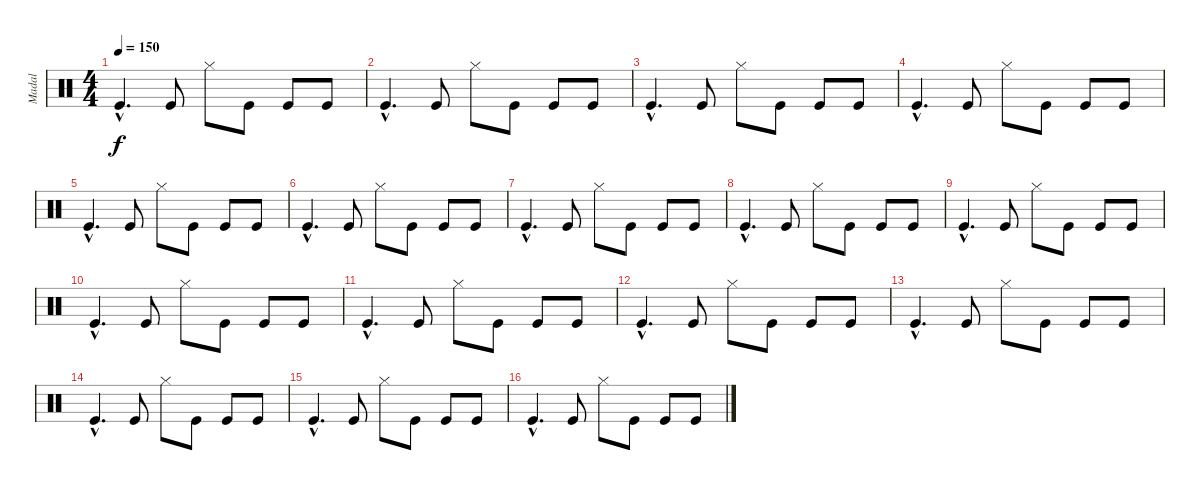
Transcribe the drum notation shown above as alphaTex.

\track ("Madal" "Madal") {instrument percussion}
\staff {score}
\articulation defaults
\ts (4 4)
\tempo 150
\clef neutral
\ks c "Kick (hit)"{hac}.4{d dy f} "Kick (hit)".8 "Hi-Hat (closed)".8 "Kick (hit)".8 "Kick (hit)".8 "Kick (hit)".8
|
"Kick (hit)"{hac}.4{d} "Kick (hit)".8 "Hi-Hat (closed)".8 "Kick (hit)".8 "Kick (hit)".8 "Kick (hit)".8 |
"Kick (hit)"{hac}.4{d} "Kick (hit)".8 "Hi-Hat (closed)".8 "Kick (hit)".8 "Kick (hit)".8 "Kick (hit)".8 |
"Kick (hit)"{hac}.4{d} "Kick (hit)".8 "Hi-Hat (closed)".8 "Kick (hit)".8 "Kick (hit)".8 "Kick (hit)".8 |
"Kick (hit)"{hac}.4{d} "Kick (hit)".8 "Hi-Hat (closed)".8 "Kick (hit)".8 "Kick (hit)".8 "Kick (hit)".8 |
"Kick (hit)"{hac}.4{d} "Kick (hit)".8 "Hi-Hat (closed)".8 "Kick (hit)".8 "Kick (hit)".8 "Kick (hit)".8 |
"Kick (hit)"{hac}.4{d} "Kick (hit)".8 "Hi-Hat (closed)".8 "Kick (hit)".8 "Kick (hit)".8 "Kick (hit)".8 |
"Kick (hit)"{hac}.4{d} "Kick (hit)".8 "Hi-Hat (closed)".8 "Kick (hit)".8 "Kick (hit)".8 "Kick (hit)".8 |
"Kick (hit)"{hac}.4{d} "Kick (hit)".8 "Hi-Hat (closed)".8 "Kick (hit)".8 "Kick (hit)".8 "Kick (hit)".8 |
"Kick (hit)"{hac}.4{d} "Kick (hit)".8 "Hi-Hat (closed)".8 "Kick (hit)".8 "Kick (hit)".8 "Kick (hit)".8 |
"Kick (hit)"{hac}.4{d} "Kick (hit)".8 "Hi-Hat (closed)".8 "Kick (hit)".8 "Kick (hit)".8 "Kick (hit)".8 |
"Kick (hit)"{hac}.4{d} "Kick (hit)".8 "Hi-Hat (closed)".8 "Kick (hit)".8 "Kick (hit)".8 "Kick (hit)".8 |
"Kick (hit)"{hac}.4{d} "Kick (hit)".8 "Hi-Hat (closed)".8 "Kick (hit)".8 "Kick (hit)".8 "Kick (hit)".8 |
"Kick (hit)"{hac}.4{d} "Kick (hit)".8 "Hi-Hat (closed)".8 "Kick (hit)".8 "Kick (hit)".8 "Kick (hit)".8 |
"Kick (hit)"{hac}.4{d} "Kick (hit)".8 "Hi-Hat (closed)".8 "Kick (hit)".8 "Kick (hit)".8 "Kick (hit)".8 |
"Kick (hit)"{hac}.4{d} "Kick (hit)".8 "Hi-Hat (closed)".8 "Kick (hit)".8 "Kick (hit)".8 "Kick (hit)".8
